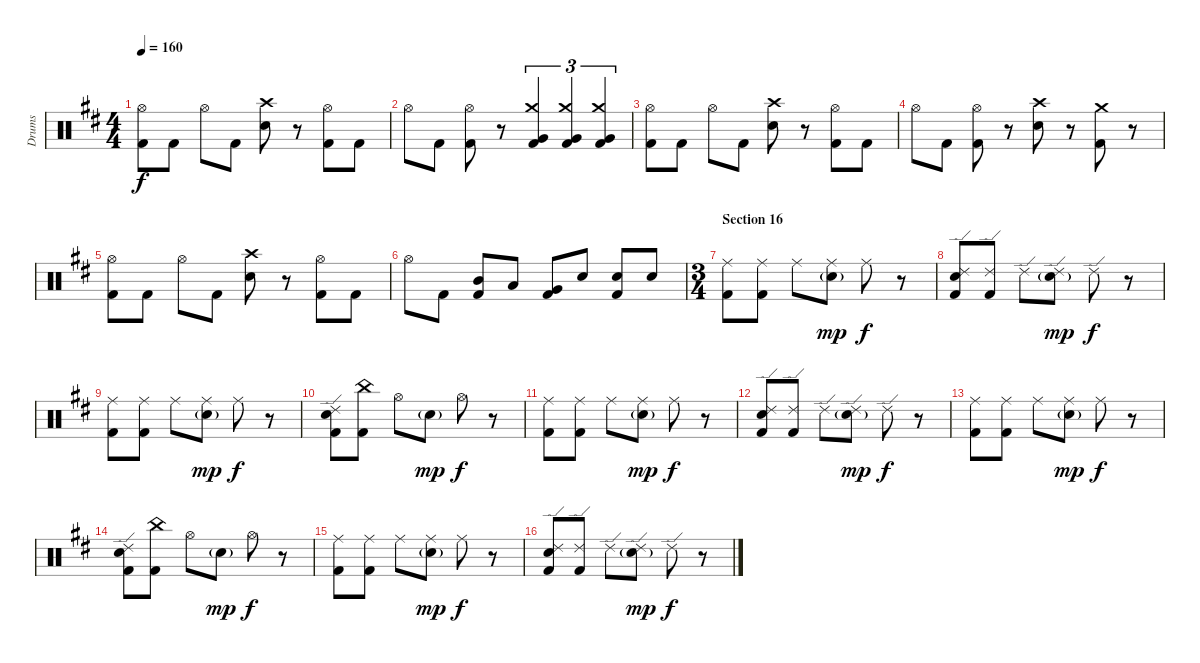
\track ("Drums" "Drums") {instrument percussion}
\staff {score}
\articulation defaults
\ts (4 4)
\tempo 160
\clef neutral
\ks bminor
("Hi-Hat (open)" "Kick (hit) 2").8{dy f} "Kick (hit) 2".8 "Hi-Hat (open)".8 "Kick (hit) 2".8 ("Crash high (hit)" "Snare (hit) 2").8 r.8 ("Hi-Hat (open)" "Kick (hit) 2").8 "Kick (hit) 2".8 |
"Hi-Hat (open)".8 "Kick (hit) 2".8 ("Hi-Hat (open)" "Kick (hit) 2").8 r.8 ("Crash medium (hit)" "Very Low Tom (hit)" "Kick (hit) 2").4{tu (3 2)} ("Crash medium (hit)" "Very Low Tom (hit)" "Kick (hit) 2").4{tu (3 2)} ("Crash medium (hit)" "Very Low Tom (hit)" "Kick (hit) 2").4{tu (3 2)} |
("Hi-Hat (open)" "Kick (hit) 2").8 "Kick (hit) 2".8 "Hi-Hat (open)".8 "Kick (hit) 2".8 ("Crash high (hit)" "Snare (hit) 2").8 r.8 ("Hi-Hat (open)" "Kick (hit) 2").8 "Kick (hit) 2".8 |
"Hi-Hat (open)".8 "Kick (hit) 2".8 ("Hi-Hat (open)" "Kick (hit) 2").8 r.8 ("Crash high (hit)" "Snare (hit) 2").8 r.8 ("Crash medium (hit)" "Kick (hit) 2").8 r.8 |
("Hi-Hat (open)" "Kick (hit) 2").8 "Kick (hit) 2".8 "Hi-Hat (open)".8 "Kick (hit) 2".8 ("Crash high (hit)" "Snare (hit) 2").8 r.8 ("Hi-Hat (open)" "Kick (hit) 2").8 "Kick (hit) 2".8 |
"Hi-Hat (open)".8 "Kick (hit) 2".8 ("Mid Tom (hit)" "Kick (hit) 2").8 "Low Tom (hit)".8 ("Very Low Tom (hit)" "Kick (hit) 2").8 "Snare (hit) 2".8 ("Snare (hit) 2" "Kick (hit) 2").8 "Snare (hit) 2".8 |
\ts (3 4)
\section ("" "Section 16")
("Ride (middle)" "Kick (hit) 2").8 ("Ride (middle)" "Kick (hit) 2").8 "Ride (middle)".8 ("Ride (middle)" "Snare (hit) 2"{g}).8{dy mp} "Ride (middle)".8{dy f} r.8 |
("Ride (edge) 2" "Snare (hit) 2" "Kick (hit) 2").8 ("Ride (edge) 2" "Kick (hit) 2").8 "Ride (edge) 2".8 ("Ride (edge) 2" "Snare (hit) 2"{g}).8{dy mp} "Ride (edge) 2".8{dy f} r.8 |
("Ride (middle)" "Kick (hit) 2").8 ("Ride (middle)" "Kick (hit) 2").8 "Ride (middle)".8 ("Ride (middle)" "Snare (hit) 2"{g}).8{dy mp} "Ride (middle)".8{dy f} r.8 |
("Ride (edge) 2" "Snare (hit) 2" "Kick (hit) 2").8 ("China (hit)" "Kick (hit) 2").8 "Hi-Hat (open)".8 "Snare (hit) 2"{g}.8{dy mp} "Hi-Hat (open)".8{dy f} r.8 |
("Ride (middle)" "Kick (hit) 2").8 ("Ride (middle)" "Kick (hit) 2").8 "Ride (middle)".8 ("Ride (middle)" "Snare (hit) 2"{g}).8{dy mp} "Ride (middle)".8{dy f} r.8 |
("Ride (edge) 2" "Snare (hit) 2" "Kick (hit) 2").8 ("Ride (edge) 2" "Kick (hit) 2").8 "Ride (edge) 2".8 ("Ride (edge) 2" "Snare (hit) 2"{g}).8{dy mp} "Ride (edge) 2".8{dy f} r.8 |
("Ride (middle)" "Kick (hit) 2").8 ("Ride (middle)" "Kick (hit) 2").8 "Ride (middle)".8 ("Ride (middle)" "Snare (hit) 2"{g}).8{dy mp} "Ride (middle)".8{dy f} r.8 |
("Ride (edge) 2" "Snare (hit) 2" "Kick (hit) 2").8 ("China (hit)" "Kick (hit) 2").8 "Hi-Hat (open)".8 "Snare (hit) 2"{g}.8{dy mp} "Hi-Hat (open)".8{dy f} r.8 |
("Ride (middle)" "Kick (hit) 2").8 ("Ride (middle)" "Kick (hit) 2").8 "Ride (middle)".8 ("Ride (middle)" "Snare (hit) 2"{g}).8{dy mp} "Ride (middle)".8{dy f} r.8 |
("Ride (edge) 2" "Snare (hit) 2" "Kick (hit) 2").8 ("Ride (edge) 2" "Kick (hit) 2").8 "Ride (edge) 2".8 ("Ride (edge) 2" "Snare (hit) 2"{g}).8{dy mp} "Ride (edge) 2".8{dy f} r.8
